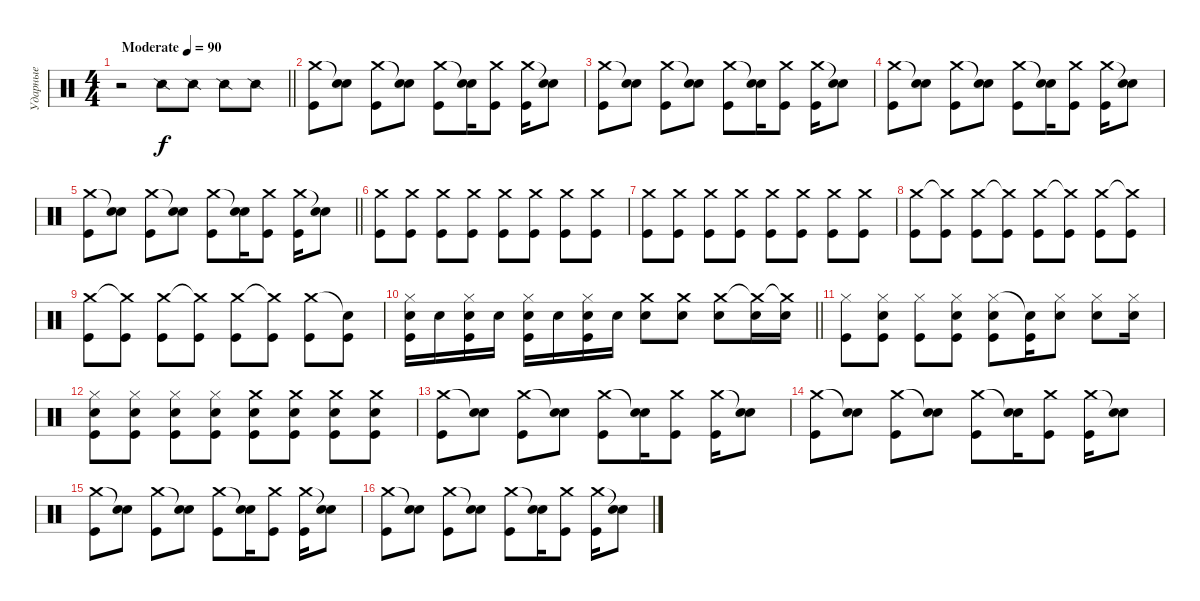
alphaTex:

\track ("Ударные" "Ударные") {instrument percussion}
\staff {score}
\articulation defaults
\ts (4 4)
\tempo (90 "Moderate")
\clef neutral
\barLineRight lightlight
\ks c
r.2{dy f} "Snare (side stick) 2".8 "Snare (side stick) 2".8 "Snare (side stick) 2".8 "Snare (side stick) 2".8 |
("Crash medium (hit)" "Kick (hit)").8 ("Snare (hit)"{t} "Snare (hit) 2").8 ("Crash medium (hit)" "Kick (hit)").8 ("Snare (hit)"{t} "Snare (hit) 2").8 ("Crash medium (hit)" "Kick (hit)").8 ("Snare (hit)"{t} "Snare (hit) 2").16 ("Crash medium (hit)" "Kick (hit)").8 ("Crash medium (hit)" "Kick (hit)").16 ("Snare (hit)"{t} "Snare (hit) 2").8 |
("Crash medium (hit)" "Kick (hit)").8 ("Snare (hit)"{t} "Snare (hit) 2").8 ("Crash medium (hit)" "Kick (hit)").8 ("Snare (hit)"{t} "Snare (hit) 2").8 ("Crash medium (hit)" "Kick (hit)").8 ("Snare (hit)"{t} "Snare (hit) 2").16 ("Crash medium (hit)" "Kick (hit)").8 ("Crash medium (hit)" "Kick (hit)").16 ("Snare (hit)"{t} "Snare (hit) 2").8 |
("Crash medium (hit)" "Kick (hit)").8 ("Snare (hit)"{t} "Snare (hit) 2").8 ("Crash medium (hit)" "Kick (hit)").8 ("Snare (hit)"{t} "Snare (hit) 2").8 ("Crash medium (hit)" "Kick (hit)").8 ("Snare (hit)"{t} "Snare (hit) 2").16 ("Crash medium (hit)" "Kick (hit)").8 ("Crash medium (hit)" "Kick (hit)").16 ("Snare (hit)"{t} "Snare (hit) 2").8 |
\barLineRight lightlight
("Crash medium (hit)" "Kick (hit)").8 ("Snare (hit)"{t} "Snare (hit) 2").8 ("Crash medium (hit)" "Kick (hit)").8 ("Snare (hit)"{t} "Snare (hit) 2").8 ("Crash medium (hit)" "Kick (hit)").8 ("Snare (hit)"{t} "Snare (hit) 2").16 ("Crash medium (hit)" "Kick (hit)").8 ("Crash medium (hit)" "Kick (hit)").16 ("Snare (hit)"{t} "Snare (hit) 2").8 |
("Crash medium (hit)" "Kick (hit)").8 ("Crash medium (hit)" "Kick (hit)").8 ("Crash medium (hit)" "Kick (hit)").8 ("Crash medium (hit)" "Kick (hit)").8 ("Crash medium (hit)" "Kick (hit)").8 ("Crash medium (hit)" "Kick (hit)").8 ("Crash medium (hit)" "Kick (hit)").8 ("Crash medium (hit)" "Kick (hit)").8 |
("Crash medium (hit)" "Kick (hit)").8 ("Crash medium (hit)" "Kick (hit)").8 ("Crash medium (hit)" "Kick (hit)").8 ("Crash medium (hit)" "Kick (hit)").8 ("Crash medium (hit)" "Kick (hit)").8 ("Crash medium (hit)" "Kick (hit)").8 ("Crash medium (hit)" "Kick (hit)").8 ("Crash medium (hit)" "Kick (hit)").8 |
("Crash medium (hit)" "Kick (hit)").8 ("Crash medium (hit)"{t} "Kick (hit)").8 ("Crash medium (hit)" "Kick (hit)").8 ("Crash medium (hit)"{t} "Kick (hit)").8 ("Crash medium (hit)" "Kick (hit)").8 ("Crash medium (hit)"{t} "Kick (hit)").8 ("Crash medium (hit)" "Kick (hit)").8 ("Crash medium (hit)"{t} "Kick (hit)").8 |
("Crash medium (hit)" "Kick (hit)").8 ("Crash medium (hit)"{t} "Kick (hit)").8 ("Crash medium (hit)" "Kick (hit)").8 ("Crash medium (hit)"{t} "Kick (hit)").8 ("Crash medium (hit)" "Kick (hit)").8 ("Crash medium (hit)"{t} "Kick (hit)").8 ("Crash medium (hit)" "Kick (hit)").8 ("Snare (hit)"{t} "Kick (hit)").8 |
\barLineRight lightlight
("Hi-Hat (closed)" "Snare (hit) 2" "Kick (hit)").16 "Snare (hit) 2".16 ("Hi-Hat (closed)" "Snare (hit) 2" "Kick (hit)").16 "Snare (hit) 2".16 ("Hi-Hat (closed)" "Snare (hit) 2" "Kick (hit)").16 "Snare (hit) 2".16 ("Hi-Hat (closed)" "Snare (hit) 2" "Kick (hit)").16 "Snare (hit) 2".16 ("Crash medium (hit)" "Snare (hit) 2").8 ("Crash medium (hit)" "Snare (hit) 2").8 ("Crash medium (hit)" "Snare (hit) 2").8 ("Crash medium (hit)"{t} "Snare (hit) 2").16 ("Crash medium (hit)"{t} "Snare (hit) 2").16 |
("Hi-Hat (closed)" "Kick (hit)").8 ("Hi-Hat (closed)" "Snare (hit) 2" "Kick (hit)").8 ("Hi-Hat (closed)" "Kick (hit)").8 ("Hi-Hat (closed)" "Snare (hit) 2" "Kick (hit)").8 ("Hi-Hat (closed)" "Snare (hit) 2" "Kick (hit)").8 ("Snare (hit)"{t} "Kick (hit)").16 ("Hi-Hat (closed)" "Snare (hit) 2").8 ("Hi-Hat (closed)" "Snare (hit) 2").8 ("Hi-Hat (closed)" "Snare (hit) 2").16 |
("Hi-Hat (closed)" "Snare (hit) 2" "Kick (hit)").8 ("Hi-Hat (closed)" "Snare (hit) 2" "Kick (hit)").8 ("Hi-Hat (closed)" "Snare (hit) 2" "Kick (hit)").8 ("Hi-Hat (closed)" "Snare (hit) 2" "Kick (hit)").8 ("Crash medium (hit)" "Snare (hit) 2" "Kick (hit)").8 ("Crash medium (hit)" "Snare (hit) 2" "Kick (hit)").8 ("Crash medium (hit)" "Snare (hit) 2" "Kick (hit)").8 ("Crash medium (hit)" "Snare (hit) 2" "Kick (hit)").8 |
("Crash medium (hit)" "Kick (hit)").8 ("Snare (hit)"{t} "Snare (hit) 2").8 ("Crash medium (hit)" "Kick (hit)").8 ("Snare (hit)"{t} "Snare (hit) 2").8 ("Crash medium (hit)" "Kick (hit)").8 ("Snare (hit)"{t} "Snare (hit) 2").16 ("Crash medium (hit)" "Kick (hit)").8 ("Crash medium (hit)" "Kick (hit)").16 ("Snare (hit)"{t} "Snare (hit) 2").8 |
("Crash medium (hit)" "Kick (hit)").8 ("Snare (hit)"{t} "Snare (hit) 2").8 ("Crash medium (hit)" "Kick (hit)").8 ("Snare (hit)"{t} "Snare (hit) 2").8 ("Crash medium (hit)" "Kick (hit)").8 ("Snare (hit)"{t} "Snare (hit) 2").16 ("Crash medium (hit)" "Kick (hit)").8 ("Crash medium (hit)" "Kick (hit)").16 ("Snare (hit)"{t} "Snare (hit) 2").8 |
("Crash medium (hit)" "Kick (hit)").8 ("Snare (hit)"{t} "Snare (hit) 2").8 ("Crash medium (hit)" "Kick (hit)").8 ("Snare (hit)"{t} "Snare (hit) 2").8 ("Crash medium (hit)" "Kick (hit)").8 ("Snare (hit)"{t} "Snare (hit) 2").16 ("Crash medium (hit)" "Kick (hit)").8 ("Crash medium (hit)" "Kick (hit)").16 ("Snare (hit)"{t} "Snare (hit) 2").8 |
("Crash medium (hit)" "Kick (hit)").8 ("Snare (hit)"{t} "Snare (hit) 2").8 ("Crash medium (hit)" "Kick (hit)").8 ("Snare (hit)"{t} "Snare (hit) 2").8 ("Crash medium (hit)" "Kick (hit)").8 ("Snare (hit)"{t} "Snare (hit) 2").16 ("Crash medium (hit)" "Kick (hit)").8 ("Crash medium (hit)" "Kick (hit)").16 ("Snare (hit)"{t} "Snare (hit) 2").8
